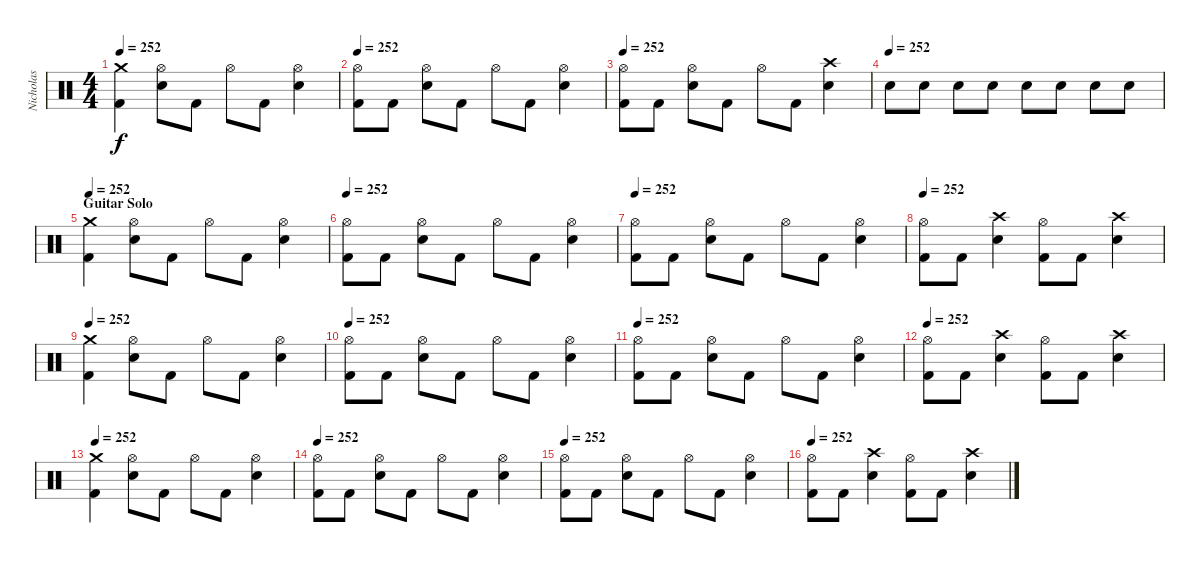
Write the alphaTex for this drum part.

\track ("Nicholas" "Nicholas") {instrument percussion}
\staff {score}
\articulation defaults
\ts (4 4)
\tempo 252
\clef neutral
\ks c
("Crash medium (hit)" "Kick (hit) 2").4{dy f} ("Hi-Hat (open)" "Snare (hit) 2").8 "Kick (hit) 2".8 "Hi-Hat (open)".8 "Kick (hit) 2".8 ("Hi-Hat (open)" "Snare (hit) 2").4 |
\tempo 252
("Hi-Hat (open)" "Kick (hit) 2").8 "Kick (hit) 2".8 ("Hi-Hat (open)" "Snare (hit) 2").8 "Kick (hit) 2".8 "Hi-Hat (open)".8 "Kick (hit) 2".8 ("Hi-Hat (open)" "Snare (hit) 2").4 |
\tempo 252
("Hi-Hat (open)" "Kick (hit) 2").8 "Kick (hit) 2".8 ("Hi-Hat (open)" "Snare (hit) 2").8 "Kick (hit) 2".8 "Hi-Hat (open)".8 "Kick (hit) 2".8 ("Crash high (hit)" "Snare (hit) 2").4 |
\tempo (252)
"Snare (hit) 2".8 "Snare (hit) 2".8 "Snare (hit) 2".8 "Snare (hit) 2".8 "Snare (hit) 2".8 "Snare (hit) 2".8 "Snare (hit) 2".8 "Snare (hit) 2".8 |
\section ("" "Guitar Solo")
\tempo 252
("Crash medium (hit)" "Kick (hit) 2").4 ("Hi-Hat (open)" "Snare (hit) 2").8 "Kick (hit) 2".8 "Hi-Hat (open)".8 "Kick (hit) 2".8 ("Hi-Hat (open)" "Snare (hit) 2").4 |
\tempo 252
("Hi-Hat (open)" "Kick (hit) 2").8 "Kick (hit) 2".8 ("Hi-Hat (open)" "Snare (hit) 2").8 "Kick (hit) 2".8 "Hi-Hat (open)".8 "Kick (hit) 2".8 ("Hi-Hat (open)" "Snare (hit) 2").4 |
\tempo 252
("Hi-Hat (open)" "Kick (hit) 2").8 "Kick (hit) 2".8 ("Hi-Hat (open)" "Snare (hit) 2").8 "Kick (hit) 2".8 "Hi-Hat (open)".8 "Kick (hit) 2".8 ("Hi-Hat (open)" "Snare (hit) 2").4 |
\tempo 252
("Hi-Hat (open)" "Kick (hit) 2").8 "Kick (hit) 2".8 ("Crash high (hit)" "Snare (hit) 2").4 ("Hi-Hat (open)" "Kick (hit) 2").8 "Kick (hit) 2".8 ("Crash high (hit)" "Snare (hit) 2").4 |
\tempo 252
("Crash medium (hit)" "Kick (hit) 2").4 ("Hi-Hat (open)" "Snare (hit) 2").8 "Kick (hit) 2".8 "Hi-Hat (open)".8 "Kick (hit) 2".8 ("Hi-Hat (open)" "Snare (hit) 2").4 |
\tempo 252
("Hi-Hat (open)" "Kick (hit) 2").8 "Kick (hit) 2".8 ("Hi-Hat (open)" "Snare (hit) 2").8 "Kick (hit) 2".8 "Hi-Hat (open)".8 "Kick (hit) 2".8 ("Hi-Hat (open)" "Snare (hit) 2").4 |
\tempo 252
("Hi-Hat (open)" "Kick (hit) 2").8 "Kick (hit) 2".8 ("Hi-Hat (open)" "Snare (hit) 2").8 "Kick (hit) 2".8 "Hi-Hat (open)".8 "Kick (hit) 2".8 ("Hi-Hat (open)" "Snare (hit) 2").4 |
\tempo 252
("Hi-Hat (open)" "Kick (hit) 2").8 "Kick (hit) 2".8 ("Crash high (hit)" "Snare (hit) 2").4 ("Hi-Hat (open)" "Kick (hit) 2").8 "Kick (hit) 2".8 ("Crash high (hit)" "Snare (hit) 2").4 |
\tempo 252
("Crash medium (hit)" "Kick (hit) 2").4 ("Hi-Hat (open)" "Snare (hit) 2").8 "Kick (hit) 2".8 "Hi-Hat (open)".8 "Kick (hit) 2".8 ("Hi-Hat (open)" "Snare (hit) 2").4 |
\tempo 252
("Hi-Hat (open)" "Kick (hit) 2").8 "Kick (hit) 2".8 ("Hi-Hat (open)" "Snare (hit) 2").8 "Kick (hit) 2".8 "Hi-Hat (open)".8 "Kick (hit) 2".8 ("Hi-Hat (open)" "Snare (hit) 2").4 |
\tempo 252
("Hi-Hat (open)" "Kick (hit) 2").8 "Kick (hit) 2".8 ("Hi-Hat (open)" "Snare (hit) 2").8 "Kick (hit) 2".8 "Hi-Hat (open)".8 "Kick (hit) 2".8 ("Hi-Hat (open)" "Snare (hit) 2").4 |
\tempo 252
("Hi-Hat (open)" "Kick (hit) 2").8 "Kick (hit) 2".8 ("Crash high (hit)" "Snare (hit) 2").4 ("Hi-Hat (open)" "Kick (hit) 2").8 "Kick (hit) 2".8 ("Crash high (hit)" "Snare (hit) 2").4
